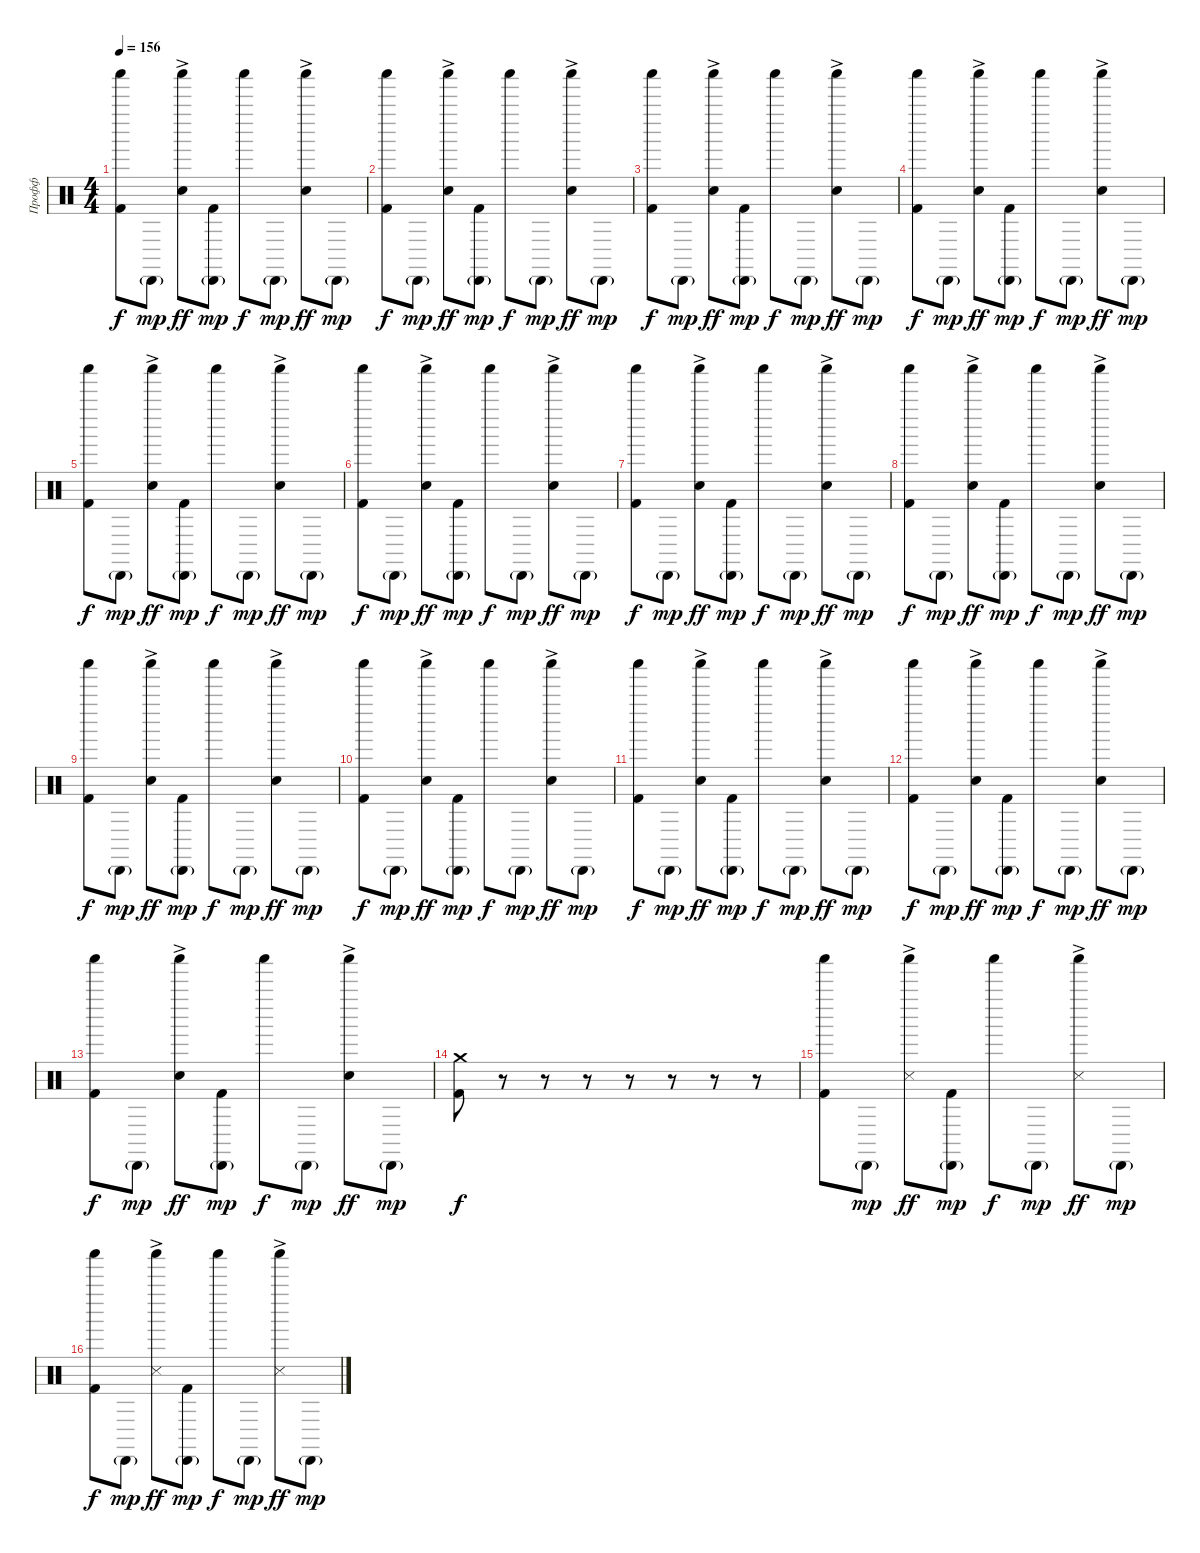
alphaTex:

\track ("Профф" "Профф") {instrument percussion}
\staff {score}
\articulation defaults
\ts (4 4)
\tempo 156
\clef neutral
\ks c
("Shaker (hit)" "Kick (hit) 2").8{dy f} "Cabasa (hit)"{g}.8{dy mp} ("Shaker (hit)"{ac} "Electric Snare (hit)").8{dy ff} ("Cabasa (hit)"{g} "Kick (hit) 2").8{dy mp} "Shaker (hit)".8{dy f} "Cabasa (hit)"{g}.8{dy mp} ("Shaker (hit)"{ac} "Electric Snare (hit)").8{dy ff} "Cabasa (hit)"{g}.8{dy mp} |
("Shaker (hit)" "Kick (hit) 2").8{dy f} "Cabasa (hit)"{g}.8{dy mp} ("Shaker (hit)"{ac} "Electric Snare (hit)").8{dy ff} ("Cabasa (hit)"{g} "Kick (hit) 2").8{dy mp} "Shaker (hit)".8{dy f} "Cabasa (hit)"{g}.8{dy mp} ("Shaker (hit)"{ac} "Electric Snare (hit)").8{dy ff} "Cabasa (hit)"{g}.8{dy mp} |
("Shaker (hit)" "Kick (hit) 2").8{dy f} "Cabasa (hit)"{g}.8{dy mp} ("Shaker (hit)"{ac} "Electric Snare (hit)").8{dy ff} ("Cabasa (hit)"{g} "Kick (hit) 2").8{dy mp} "Shaker (hit)".8{dy f} "Cabasa (hit)"{g}.8{dy mp} ("Shaker (hit)"{ac} "Electric Snare (hit)").8{dy ff} "Cabasa (hit)"{g}.8{dy mp} |
("Shaker (hit)" "Kick (hit) 2").8{dy f} "Cabasa (hit)"{g}.8{dy mp} ("Shaker (hit)"{ac} "Electric Snare (hit)").8{dy ff} ("Cabasa (hit)"{g} "Kick (hit) 2").8{dy mp} "Shaker (hit)".8{dy f} "Cabasa (hit)"{g}.8{dy mp} ("Shaker (hit)"{ac} "Electric Snare (hit)").8{dy ff} "Cabasa (hit)"{g}.8{dy mp} |
("Shaker (hit)" "Kick (hit) 2").8{dy f} "Cabasa (hit)"{g}.8{dy mp} ("Shaker (hit)"{ac} "Electric Snare (hit)").8{dy ff} ("Cabasa (hit)"{g} "Kick (hit) 2").8{dy mp} "Shaker (hit)".8{dy f} "Cabasa (hit)"{g}.8{dy mp} ("Shaker (hit)"{ac} "Electric Snare (hit)").8{dy ff} "Cabasa (hit)"{g}.8{dy mp} |
("Shaker (hit)" "Kick (hit) 2").8{dy f} "Cabasa (hit)"{g}.8{dy mp} ("Shaker (hit)"{ac} "Electric Snare (hit)").8{dy ff} ("Cabasa (hit)"{g} "Kick (hit) 2").8{dy mp} "Shaker (hit)".8{dy f} "Cabasa (hit)"{g}.8{dy mp} ("Shaker (hit)"{ac} "Electric Snare (hit)").8{dy ff} "Cabasa (hit)"{g}.8{dy mp} |
("Shaker (hit)" "Kick (hit) 2").8{dy f} "Cabasa (hit)"{g}.8{dy mp} ("Shaker (hit)"{ac} "Electric Snare (hit)").8{dy ff} ("Cabasa (hit)"{g} "Kick (hit) 2").8{dy mp} "Shaker (hit)".8{dy f} "Cabasa (hit)"{g}.8{dy mp} ("Shaker (hit)"{ac} "Electric Snare (hit)").8{dy ff} "Cabasa (hit)"{g}.8{dy mp} |
("Shaker (hit)" "Kick (hit) 2").8{dy f} "Cabasa (hit)"{g}.8{dy mp} ("Shaker (hit)"{ac} "Electric Snare (hit)").8{dy ff} ("Cabasa (hit)"{g} "Kick (hit) 2").8{dy mp} "Shaker (hit)".8{dy f} "Cabasa (hit)"{g}.8{dy mp} ("Shaker (hit)"{ac} "Electric Snare (hit)").8{dy ff} "Cabasa (hit)"{g}.8{dy mp} |
("Shaker (hit)" "Kick (hit) 2").8{dy f} "Cabasa (hit)"{g}.8{dy mp} ("Shaker (hit)"{ac} "Electric Snare (hit)").8{dy ff} ("Cabasa (hit)"{g} "Kick (hit) 2").8{dy mp} "Shaker (hit)".8{dy f} "Cabasa (hit)"{g}.8{dy mp} ("Shaker (hit)"{ac} "Electric Snare (hit)").8{dy ff} "Cabasa (hit)"{g}.8{dy mp} |
("Shaker (hit)" "Kick (hit) 2").8{dy f} "Cabasa (hit)"{g}.8{dy mp} ("Shaker (hit)"{ac} "Electric Snare (hit)").8{dy ff} ("Cabasa (hit)"{g} "Kick (hit) 2").8{dy mp} "Shaker (hit)".8{dy f} "Cabasa (hit)"{g}.8{dy mp} ("Shaker (hit)"{ac} "Electric Snare (hit)").8{dy ff} "Cabasa (hit)"{g}.8{dy mp} |
("Shaker (hit)" "Kick (hit) 2").8{dy f} "Cabasa (hit)"{g}.8{dy mp} ("Shaker (hit)"{ac} "Electric Snare (hit)").8{dy ff} ("Cabasa (hit)"{g} "Kick (hit) 2").8{dy mp} "Shaker (hit)".8{dy f} "Cabasa (hit)"{g}.8{dy mp} ("Shaker (hit)"{ac} "Electric Snare (hit)").8{dy ff} "Cabasa (hit)"{g}.8{dy mp} |
("Shaker (hit)" "Kick (hit) 2").8{dy f} "Cabasa (hit)"{g}.8{dy mp} ("Shaker (hit)"{ac} "Electric Snare (hit)").8{dy ff} ("Cabasa (hit)"{g} "Kick (hit) 2").8{dy mp} "Shaker (hit)".8{dy f} "Cabasa (hit)"{g}.8{dy mp} ("Shaker (hit)"{ac} "Electric Snare (hit)").8{dy ff} "Cabasa (hit)"{g}.8{dy mp} |
("Shaker (hit)" "Kick (hit) 2").8{dy f} "Cabasa (hit)"{g}.8{dy mp} ("Shaker (hit)"{ac} "Electric Snare (hit)").8{dy ff} ("Cabasa (hit)"{g} "Kick (hit) 2").8{dy mp} "Shaker (hit)".8{dy f} "Cabasa (hit)"{g}.8{dy mp} ("Shaker (hit)"{ac} "Electric Snare (hit)").8{dy ff} "Cabasa (hit)"{g}.8{dy mp} |
("Crash medium (hit)" "Kick (hit) 2").8{dy f} r.8 r.8 r.8 r.8 r.8 r.8 r.8 |
("Shaker (hit)" "Kick (hit) 2").8 "Cabasa (hit)"{g}.8{dy mp} ("Shaker (hit)"{ac} "Snare (side stick) 3").8{dy ff} ("Cabasa (hit)"{g} "Kick (hit) 2").8{dy mp} "Shaker (hit)".8{dy f} "Cabasa (hit)"{g}.8{dy mp} ("Shaker (hit)"{ac} "Snare (side stick) 3").8{dy ff} "Cabasa (hit)"{g}.8{dy mp} |
("Shaker (hit)" "Kick (hit) 2").8{dy f} "Cabasa (hit)"{g}.8{dy mp} ("Shaker (hit)"{ac} "Snare (side stick) 3").8{dy ff} ("Cabasa (hit)"{g} "Kick (hit) 2").8{dy mp} "Shaker (hit)".8{dy f} "Cabasa (hit)"{g}.8{dy mp} ("Shaker (hit)"{ac} "Snare (side stick) 3").8{dy ff} "Cabasa (hit)"{g}.8{dy mp}
